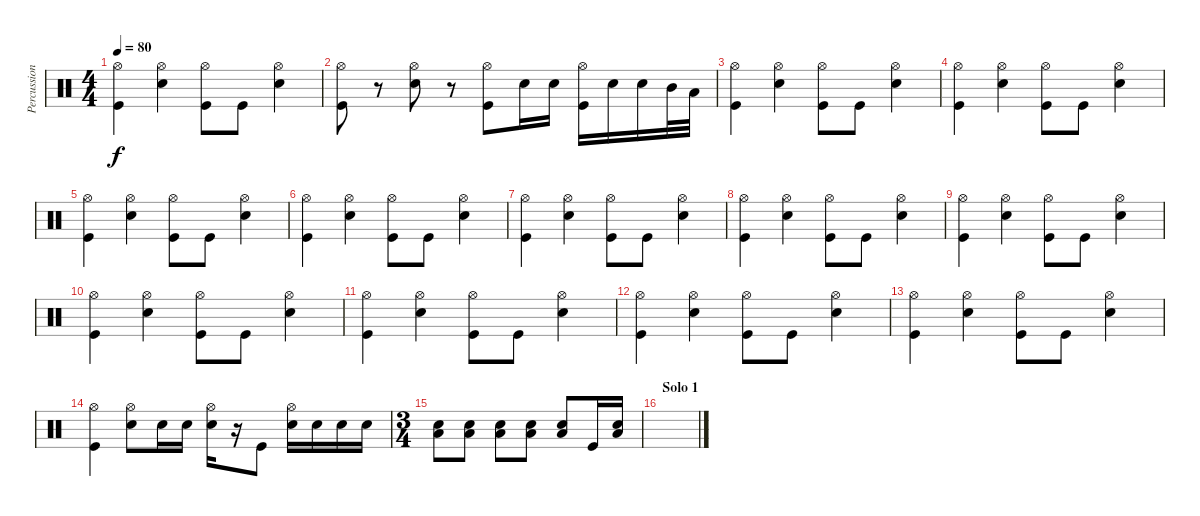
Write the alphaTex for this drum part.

\track ("Percussions" "Percussion") {instrument percussion}
\staff {score}
\articulation defaults
\ts (4 4)
\tempo 80
\clef neutral
\ks c
("Hi-Hat (open)" "Kick (hit)").4{dy f} ("Hi-Hat (open)" "Electric Snare (hit)").4 ("Hi-Hat (open)" "Kick (hit)").8 "Kick (hit)".8 ("Hi-Hat (open)" "Electric Snare (hit)").4 |
("Hi-Hat (open)" "Kick (hit)").8 r.8 ("Hi-Hat (open)" "Electric Snare (hit)").8 r.8 ("Hi-Hat (open)" "Kick (hit)").8 "Electric Snare (hit)".16 "Electric Snare (hit)".16 ("Hi-Hat (open)" "Kick (hit)").16 "Electric Snare (hit)".16 "Electric Snare (hit)".16 "Mid Tom (hit)".32 "Low Tom (hit)".32 |
("Hi-Hat (open)" "Kick (hit)").4 ("Hi-Hat (open)" "Electric Snare (hit)").4 ("Hi-Hat (open)" "Kick (hit)").8 "Kick (hit)".8 ("Hi-Hat (open)" "Electric Snare (hit)").4 |
("Hi-Hat (open)" "Kick (hit)").4 ("Hi-Hat (open)" "Electric Snare (hit)").4 ("Hi-Hat (open)" "Kick (hit)").8 "Kick (hit)".8 ("Hi-Hat (open)" "Electric Snare (hit)").4 |
("Hi-Hat (open)" "Kick (hit)").4 ("Hi-Hat (open)" "Electric Snare (hit)").4 ("Hi-Hat (open)" "Kick (hit)").8 "Kick (hit)".8 ("Hi-Hat (open)" "Electric Snare (hit)").4 |
("Hi-Hat (open)" "Kick (hit)").4 ("Hi-Hat (open)" "Electric Snare (hit)").4 ("Hi-Hat (open)" "Kick (hit)").8 "Kick (hit)".8 ("Hi-Hat (open)" "Electric Snare (hit)").4 |
("Hi-Hat (open)" "Kick (hit)").4 ("Hi-Hat (open)" "Electric Snare (hit)").4 ("Hi-Hat (open)" "Kick (hit)").8 "Kick (hit)".8 ("Hi-Hat (open)" "Electric Snare (hit)").4 |
("Hi-Hat (open)" "Kick (hit)").4 ("Hi-Hat (open)" "Electric Snare (hit)").4 ("Hi-Hat (open)" "Kick (hit)").8 "Kick (hit)".8 ("Hi-Hat (open)" "Electric Snare (hit)").4 |
("Hi-Hat (open)" "Kick (hit)").4 ("Hi-Hat (open)" "Electric Snare (hit)").4 ("Hi-Hat (open)" "Kick (hit)").8 "Kick (hit)".8 ("Hi-Hat (open)" "Electric Snare (hit)").4 |
("Hi-Hat (open)" "Kick (hit)").4 ("Hi-Hat (open)" "Electric Snare (hit)").4 ("Hi-Hat (open)" "Kick (hit)").8 "Kick (hit)".8 ("Hi-Hat (open)" "Electric Snare (hit)").4 |
("Hi-Hat (open)" "Kick (hit)").4 ("Hi-Hat (open)" "Electric Snare (hit)").4 ("Hi-Hat (open)" "Kick (hit)").8 "Kick (hit)".8 ("Hi-Hat (open)" "Electric Snare (hit)").4 |
("Hi-Hat (open)" "Kick (hit)").4 ("Hi-Hat (open)" "Electric Snare (hit)").4 ("Hi-Hat (open)" "Kick (hit)").8 "Kick (hit)".8 ("Hi-Hat (open)" "Electric Snare (hit)").4 |
("Hi-Hat (open)" "Kick (hit)").4 ("Hi-Hat (open)" "Electric Snare (hit)").4 ("Hi-Hat (open)" "Kick (hit)").8 "Kick (hit)".8 ("Hi-Hat (open)" "Electric Snare (hit)").4 |
("Hi-Hat (open)" "Kick (hit)").4 ("Hi-Hat (open)" "Electric Snare (hit)").8 "Electric Snare (hit)".16 "Electric Snare (hit)".16 ("Hi-Hat (open)" "Electric Snare (hit)").16 r.16 "Kick (hit)".8 ("Hi-Hat (open)" "Electric Snare (hit)").16 "Electric Snare (hit)".16 "Electric Snare (hit)".16 "Electric Snare (hit)".16 |
\ts (3 4)
("Low Floor Tom (hit)" "Electric Snare (hit)").8 ("Low Floor Tom (hit)" "Electric Snare (hit)").8 ("Low Floor Tom (hit)" "Electric Snare (hit)").8 ("Low Floor Tom (hit)" "Electric Snare (hit)").8 ("Low Floor Tom (hit)" "Electric Snare (hit)").8 "Kick (hit)".16 ("Low Floor Tom (hit)" "Electric Snare (hit)").16 |
\section ("" "Solo 1")
